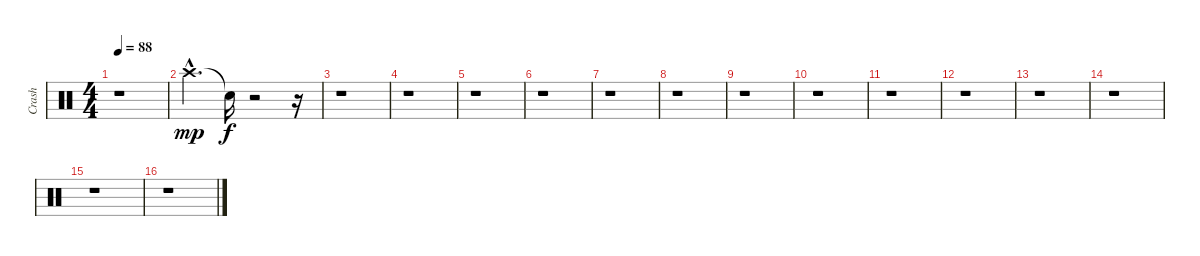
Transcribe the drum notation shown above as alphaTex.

\track ("Crash" "Crash") {instrument percussion}
\staff {score}
\articulation defaults
\ts (4 4)
\tempo 88
\clef neutral
\ks c
r.1{dy mp} |
"Crash high (hit)"{hac}.4{d} "Snare (hit)"{t}.16{dy f} r.2 r.16 |
r.1 |
r.1 |
r.1 |
r.1 |
r.1 |
r.1 |
r.1 |
r.1 |
r.1 |
r.1 |
r.1 |
r.1 |
r.1 |
r.1
